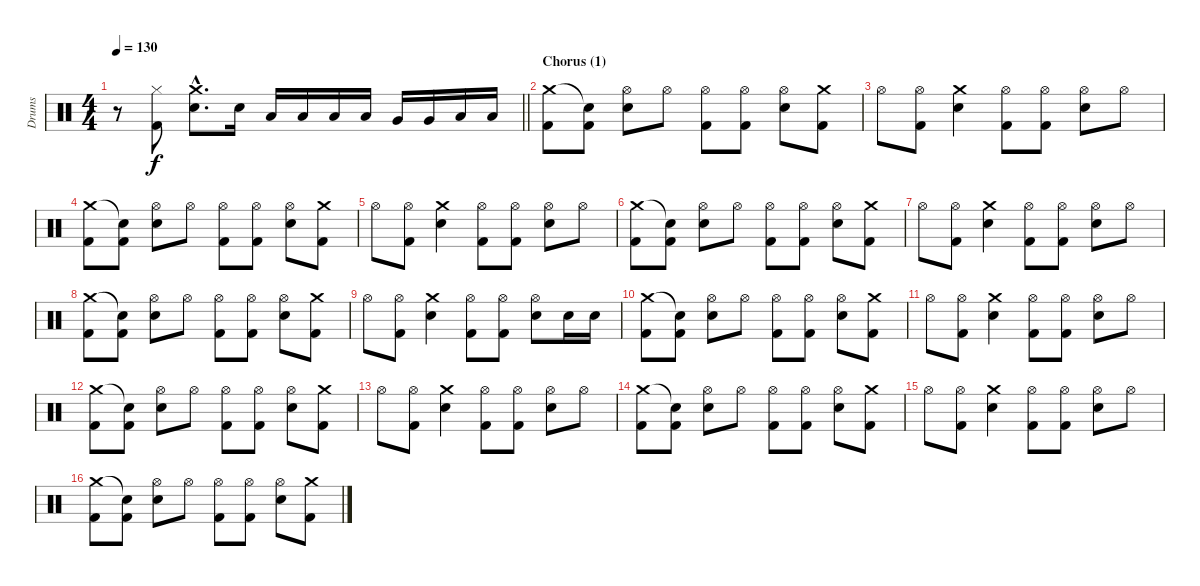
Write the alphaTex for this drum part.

\track ("Drums" "Drums") {instrument percussion}
\staff {score}
\articulation defaults
\ts (4 4)
\tempo 130
\clef neutral
\barLineRight lightlight
\ks c
r.8{dy f} ("Hi-Hat (closed)" "Kick (hit) 2").8 ("Crash medium (hit)"{hac} "Electric Snare (hit)"{hac}).8{d} "Electric Snare (hit)".16 "Low Tom (hit)".16 "Low Tom (hit)".16 "Low Tom (hit)".16 "Low Tom (hit)".16 "Very Low Tom (hit)".16 "Very Low Tom (hit)".16 "Low Floor Tom (hit)".16 "Low Floor Tom (hit)".16 |
\section ("" "Chorus (1)")
("Crash medium (hit)" "Kick (hit) 2").8 ("Snare (hit)"{t} "Kick (hit) 2").8 ("Hi-Hat (open)" "Electric Snare (hit)").8 "Hi-Hat (open)".8 ("Hi-Hat (open)" "Kick (hit) 2").8 ("Hi-Hat (open)" "Kick (hit) 2").8 ("Hi-Hat (open)" "Electric Snare (hit)").8 ("Crash medium (hit)" "Kick (hit) 2").8 |
"Hi-Hat (open)".8 ("Hi-Hat (open)" "Kick (hit) 2").8 ("Crash medium (hit)" "Electric Snare (hit)").4 ("Hi-Hat (open)" "Kick (hit) 2").8 ("Hi-Hat (open)" "Kick (hit) 2").8 ("Hi-Hat (open)" "Electric Snare (hit)").8 "Hi-Hat (open)".8 |
("Crash medium (hit)" "Kick (hit) 2").8 ("Snare (hit)"{t} "Kick (hit) 2").8 ("Hi-Hat (open)" "Electric Snare (hit)").8 "Hi-Hat (open)".8 ("Hi-Hat (open)" "Kick (hit) 2").8 ("Hi-Hat (open)" "Kick (hit) 2").8 ("Hi-Hat (open)" "Electric Snare (hit)").8 ("Crash medium (hit)" "Kick (hit) 2").8 |
"Hi-Hat (open)".8 ("Hi-Hat (open)" "Kick (hit) 2").8 ("Crash medium (hit)" "Electric Snare (hit)").4 ("Hi-Hat (open)" "Kick (hit) 2").8 ("Hi-Hat (open)" "Kick (hit) 2").8 ("Hi-Hat (open)" "Electric Snare (hit)").8 "Hi-Hat (open)".8 |
("Crash medium (hit)" "Kick (hit) 2").8 ("Snare (hit)"{t} "Kick (hit) 2").8 ("Hi-Hat (open)" "Electric Snare (hit)").8 "Hi-Hat (open)".8 ("Hi-Hat (open)" "Kick (hit) 2").8 ("Hi-Hat (open)" "Kick (hit) 2").8 ("Hi-Hat (open)" "Electric Snare (hit)").8 ("Crash medium (hit)" "Kick (hit) 2").8 |
"Hi-Hat (open)".8 ("Hi-Hat (open)" "Kick (hit) 2").8 ("Crash medium (hit)" "Electric Snare (hit)").4 ("Hi-Hat (open)" "Kick (hit) 2").8 ("Hi-Hat (open)" "Kick (hit) 2").8 ("Hi-Hat (open)" "Electric Snare (hit)").8 "Hi-Hat (open)".8 |
("Crash medium (hit)" "Kick (hit) 2").8 ("Snare (hit)"{t} "Kick (hit) 2").8 ("Hi-Hat (open)" "Electric Snare (hit)").8 "Hi-Hat (open)".8 ("Hi-Hat (open)" "Kick (hit) 2").8 ("Hi-Hat (open)" "Kick (hit) 2").8 ("Hi-Hat (open)" "Electric Snare (hit)").8 ("Crash medium (hit)" "Kick (hit) 2").8 |
"Hi-Hat (open)".8 ("Hi-Hat (open)" "Kick (hit) 2").8 ("Crash medium (hit)" "Electric Snare (hit)").4 ("Hi-Hat (open)" "Kick (hit) 2").8 ("Hi-Hat (open)" "Kick (hit) 2").8 ("Hi-Hat (open)" "Electric Snare (hit)").8 "Electric Snare (hit)".16 "Electric Snare (hit)".16 |
("Crash medium (hit)" "Kick (hit) 2").8 ("Snare (hit)"{t} "Kick (hit) 2").8 ("Hi-Hat (open)" "Electric Snare (hit)").8 "Hi-Hat (open)".8 ("Hi-Hat (open)" "Kick (hit) 2").8 ("Hi-Hat (open)" "Kick (hit) 2").8 ("Hi-Hat (open)" "Electric Snare (hit)").8 ("Crash medium (hit)" "Kick (hit) 2").8 |
"Hi-Hat (open)".8 ("Hi-Hat (open)" "Kick (hit) 2").8 ("Crash medium (hit)" "Electric Snare (hit)").4 ("Hi-Hat (open)" "Kick (hit) 2").8 ("Hi-Hat (open)" "Kick (hit) 2").8 ("Hi-Hat (open)" "Electric Snare (hit)").8 "Hi-Hat (open)".8 |
("Crash medium (hit)" "Kick (hit) 2").8 ("Snare (hit)"{t} "Kick (hit) 2").8 ("Hi-Hat (open)" "Electric Snare (hit)").8 "Hi-Hat (open)".8 ("Hi-Hat (open)" "Kick (hit) 2").8 ("Hi-Hat (open)" "Kick (hit) 2").8 ("Hi-Hat (open)" "Electric Snare (hit)").8 ("Crash medium (hit)" "Kick (hit) 2").8 |
"Hi-Hat (open)".8 ("Hi-Hat (open)" "Kick (hit) 2").8 ("Crash medium (hit)" "Electric Snare (hit)").4 ("Hi-Hat (open)" "Kick (hit) 2").8 ("Hi-Hat (open)" "Kick (hit) 2").8 ("Hi-Hat (open)" "Electric Snare (hit)").8 "Hi-Hat (open)".8 |
("Crash medium (hit)" "Kick (hit) 2").8 ("Snare (hit)"{t} "Kick (hit) 2").8 ("Hi-Hat (open)" "Electric Snare (hit)").8 "Hi-Hat (open)".8 ("Hi-Hat (open)" "Kick (hit) 2").8 ("Hi-Hat (open)" "Kick (hit) 2").8 ("Hi-Hat (open)" "Electric Snare (hit)").8 ("Crash medium (hit)" "Kick (hit) 2").8 |
"Hi-Hat (open)".8 ("Hi-Hat (open)" "Kick (hit) 2").8 ("Crash medium (hit)" "Electric Snare (hit)").4 ("Hi-Hat (open)" "Kick (hit) 2").8 ("Hi-Hat (open)" "Kick (hit) 2").8 ("Hi-Hat (open)" "Electric Snare (hit)").8 "Hi-Hat (open)".8 |
("Crash medium (hit)" "Kick (hit) 2").8 ("Snare (hit)"{t} "Kick (hit) 2").8 ("Hi-Hat (open)" "Electric Snare (hit)").8 "Hi-Hat (open)".8 ("Hi-Hat (open)" "Kick (hit) 2").8 ("Hi-Hat (open)" "Kick (hit) 2").8 ("Hi-Hat (open)" "Electric Snare (hit)").8 ("Crash medium (hit)" "Kick (hit) 2").8
